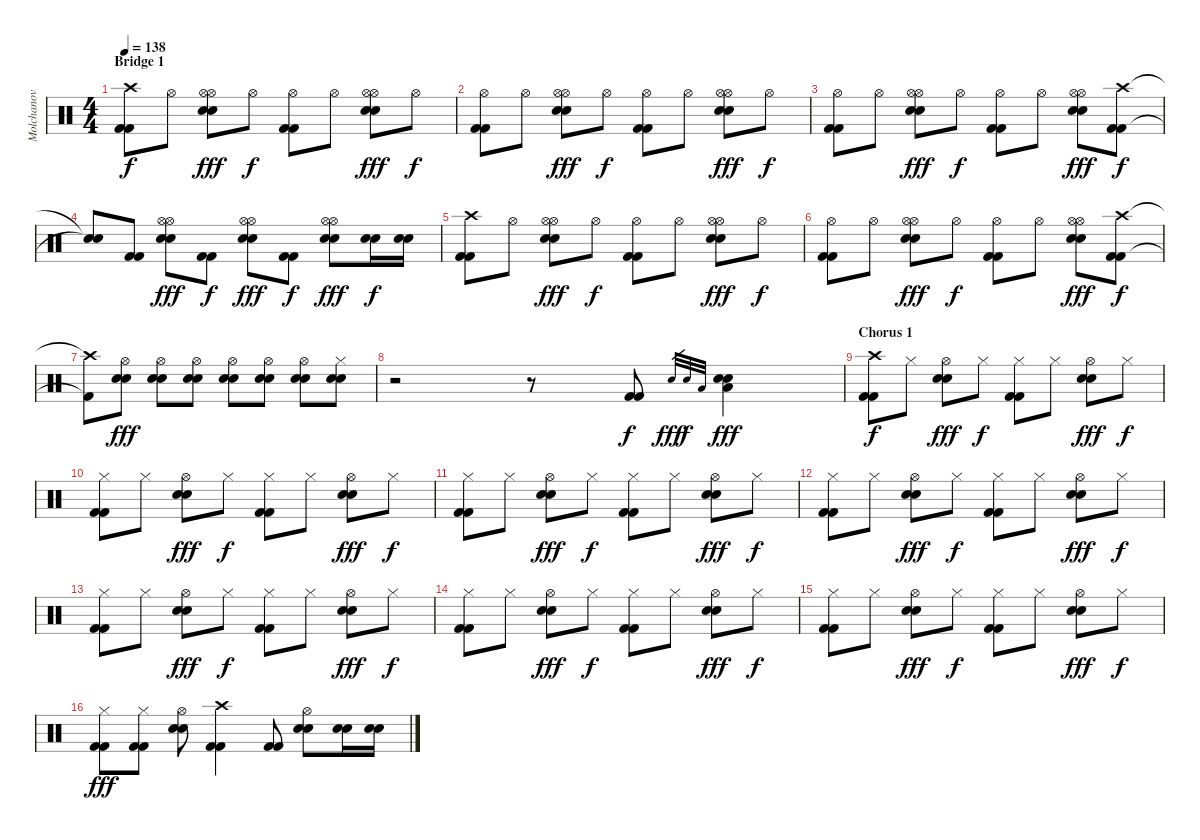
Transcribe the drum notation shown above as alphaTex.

\track ("Molchanov" "Molchanov") {instrument percussion}
\staff {score}
\articulation defaults
\ts (4 4)
\section ("" "Bridge 1")
\tempo 138
\clef neutral
\ks c
("Crash high (hit)" "Kick (hit) 2" "Kick (hit) 2").8{dy f} "Hi-Hat (open)".8 ("Hi-Hat (open)" "Hi-Hat (open)" "Electric Snare (hit)" "Electric Snare (hit)").8{dy fff} "Hi-Hat (open)".8{dy f} ("Hi-Hat (open)" "Kick (hit) 2" "Kick (hit) 2").8 "Hi-Hat (open)".8 ("Hi-Hat (open)" "Hi-Hat (open)" "Electric Snare (hit)" "Electric Snare (hit)").8{dy fff} "Hi-Hat (open)".8{dy f} |
("Hi-Hat (open)" "Kick (hit) 2" "Kick (hit) 2").8 "Hi-Hat (open)".8 ("Hi-Hat (open)" "Hi-Hat (open)" "Electric Snare (hit)" "Electric Snare (hit)").8{dy fff} "Hi-Hat (open)".8{dy f} ("Hi-Hat (open)" "Kick (hit) 2" "Kick (hit) 2").8 "Hi-Hat (open)".8 ("Hi-Hat (open)" "Hi-Hat (open)" "Electric Snare (hit)" "Electric Snare (hit)").8{dy fff} "Hi-Hat (open)".8{dy f} |
("Hi-Hat (open)" "Kick (hit) 2" "Kick (hit) 2").8 "Hi-Hat (open)".8 ("Hi-Hat (open)" "Hi-Hat (open)" "Electric Snare (hit)" "Electric Snare (hit)").8{dy fff} "Hi-Hat (open)".8{dy f} ("Hi-Hat (open)" "Kick (hit) 2" "Kick (hit) 2").8 "Hi-Hat (open)".8 ("Hi-Hat (open)" "Hi-Hat (open)" "Electric Snare (hit)" "Electric Snare (hit)").8{dy fff} ("Crash high (hit)" "Kick (hit) 2" "Kick (hit) 2").8{dy f} |
("Snare (hit)"{t} "Snare (hit)"{t}).8 ("Kick (hit) 2" "Kick (hit) 2").8 ("Hi-Hat (open)" "Hi-Hat (open)" "Electric Snare (hit)" "Electric Snare (hit)").8{dy fff} ("Kick (hit) 2" "Kick (hit) 2").8{dy f} ("Hi-Hat (open)" "Hi-Hat (open)" "Electric Snare (hit)" "Electric Snare (hit)").8{dy fff} ("Kick (hit) 2" "Kick (hit) 2").8{dy f} ("Hi-Hat (open)" "Hi-Hat (open)" "Electric Snare (hit)" "Electric Snare (hit)").8{dy fff} ("Electric Snare (hit)" "Electric Snare (hit)").16{dy f} ("Electric Snare (hit)" "Electric Snare (hit)").16 |
("Crash high (hit)" "Kick (hit) 2" "Kick (hit) 2").8 "Hi-Hat (open)".8 ("Hi-Hat (open)" "Hi-Hat (open)" "Electric Snare (hit)" "Electric Snare (hit)").8{dy fff} "Hi-Hat (open)".8{dy f} ("Hi-Hat (open)" "Kick (hit) 2" "Kick (hit) 2").8 "Hi-Hat (open)".8 ("Hi-Hat (open)" "Hi-Hat (open)" "Electric Snare (hit)" "Electric Snare (hit)").8{dy fff} "Hi-Hat (open)".8{dy f} |
("Hi-Hat (open)" "Kick (hit) 2" "Kick (hit) 2").8 "Hi-Hat (open)".8 ("Hi-Hat (open)" "Hi-Hat (open)" "Electric Snare (hit)" "Electric Snare (hit)").8{dy fff} "Hi-Hat (open)".8{dy f} ("Hi-Hat (open)" "Kick (hit) 2" "Kick (hit) 2").8 "Hi-Hat (open)".8 ("Hi-Hat (open)" "Hi-Hat (open)" "Electric Snare (hit)" "Electric Snare (hit)").8{dy fff} ("Crash high (hit)" "Kick (hit) 2" "Kick (hit) 2").8{dy f} |
("Crash high (hit)"{t} "Kick (hit) 2"{t}).8 ("Hi-Hat (open)" "Electric Snare (hit)" "Electric Snare (hit)").8{dy fff} ("Hi-Hat (open)" "Electric Snare (hit)" "Electric Snare (hit)").8 ("Hi-Hat (open)" "Electric Snare (hit)" "Electric Snare (hit)").8 ("Hi-Hat (open)" "Electric Snare (hit)" "Electric Snare (hit)").8 ("Hi-Hat (open)" "Electric Snare (hit)" "Electric Snare (hit)").8 ("Hi-Hat (open)" "Electric Snare (hit)" "Electric Snare (hit)").8 ("Hi-Hat (closed)" "Electric Snare (hit)" "Electric Snare (hit)").8 |
r.2 r.8 ("Kick (hit) 2" "Kick (hit) 2").8{dy f} "Electric Snare (hit)".32{gr dy fff} "Electric Snare (hit)".32{gr dy f} "Low Tom (hit)".32{gr} ("Electric Snare (hit)" "Electric Snare (hit)" "Low Tom (hit)").4{dy fff} |
\section ("" "Chorus 1")
("Crash high (hit)" "Kick (hit) 2" "Kick (hit) 2").8{dy f} "Hi-Hat (closed)".8 ("Hi-Hat (open)" "Electric Snare (hit)" "Electric Snare (hit)").8{dy fff} "Hi-Hat (closed)".8{dy f} ("Hi-Hat (closed)" "Kick (hit) 2" "Kick (hit) 2").8 "Hi-Hat (closed)".8 ("Hi-Hat (open)" "Electric Snare (hit)" "Electric Snare (hit)").8{dy fff} "Hi-Hat (closed)".8{dy f} |
("Hi-Hat (closed)" "Kick (hit) 2" "Kick (hit) 2").8 "Hi-Hat (closed)".8 ("Hi-Hat (open)" "Electric Snare (hit)" "Electric Snare (hit)").8{dy fff} "Hi-Hat (closed)".8{dy f} ("Hi-Hat (closed)" "Kick (hit) 2" "Kick (hit) 2").8 "Hi-Hat (closed)".8 ("Hi-Hat (open)" "Electric Snare (hit)" "Electric Snare (hit)").8{dy fff} "Hi-Hat (closed)".8{dy f} |
("Hi-Hat (closed)" "Kick (hit) 2" "Kick (hit) 2").8 "Hi-Hat (closed)".8 ("Hi-Hat (open)" "Electric Snare (hit)" "Electric Snare (hit)").8{dy fff} "Hi-Hat (closed)".8{dy f} ("Hi-Hat (closed)" "Kick (hit) 2" "Kick (hit) 2").8 "Hi-Hat (closed)".8 ("Hi-Hat (open)" "Electric Snare (hit)" "Electric Snare (hit)").8{dy fff} "Hi-Hat (closed)".8{dy f} |
("Hi-Hat (closed)" "Kick (hit) 2" "Kick (hit) 2").8 "Hi-Hat (closed)".8 ("Hi-Hat (open)" "Electric Snare (hit)" "Electric Snare (hit)").8{dy fff} "Hi-Hat (closed)".8{dy f} ("Hi-Hat (closed)" "Kick (hit) 2" "Kick (hit) 2").8 "Hi-Hat (closed)".8 ("Hi-Hat (open)" "Electric Snare (hit)" "Electric Snare (hit)").8{dy fff} "Hi-Hat (closed)".8{dy f} |
("Hi-Hat (closed)" "Kick (hit) 2" "Kick (hit) 2").8 "Hi-Hat (closed)".8 ("Hi-Hat (open)" "Electric Snare (hit)" "Electric Snare (hit)").8{dy fff} "Hi-Hat (closed)".8{dy f} ("Hi-Hat (closed)" "Kick (hit) 2" "Kick (hit) 2").8 "Hi-Hat (closed)".8 ("Hi-Hat (open)" "Electric Snare (hit)" "Electric Snare (hit)").8{dy fff} "Hi-Hat (closed)".8{dy f} |
("Hi-Hat (closed)" "Kick (hit) 2" "Kick (hit) 2").8 "Hi-Hat (closed)".8 ("Hi-Hat (open)" "Electric Snare (hit)" "Electric Snare (hit)").8{dy fff} "Hi-Hat (closed)".8{dy f} ("Hi-Hat (closed)" "Kick (hit) 2" "Kick (hit) 2").8 "Hi-Hat (closed)".8 ("Hi-Hat (open)" "Electric Snare (hit)" "Electric Snare (hit)").8{dy fff} "Hi-Hat (closed)".8{dy f} |
("Hi-Hat (closed)" "Kick (hit) 2" "Kick (hit) 2").8 "Hi-Hat (closed)".8 ("Hi-Hat (open)" "Electric Snare (hit)" "Electric Snare (hit)").8{dy fff} "Hi-Hat (closed)".8{dy f} ("Hi-Hat (closed)" "Kick (hit) 2" "Kick (hit) 2").8 "Hi-Hat (closed)".8 ("Hi-Hat (open)" "Electric Snare (hit)" "Electric Snare (hit)").8{dy fff} "Hi-Hat (closed)".8{dy f} |
("Hi-Hat (closed)" "Kick (hit) 2" "Kick (hit) 2").8{dy fff} ("Hi-Hat (closed)" "Kick (hit) 2" "Kick (hit) 2").8 ("Hi-Hat (open)" "Electric Snare (hit)" "Electric Snare (hit)").8 ("Crash high (hit)" "Kick (hit) 2" "Kick (hit) 2").4 ("Kick (hit) 2" "Kick (hit) 2").8 ("Hi-Hat (open)" "Electric Snare (hit)" "Electric Snare (hit)").8 ("Electric Snare (hit)" "Electric Snare (hit)").16 ("Electric Snare (hit)" "Electric Snare (hit)").16
